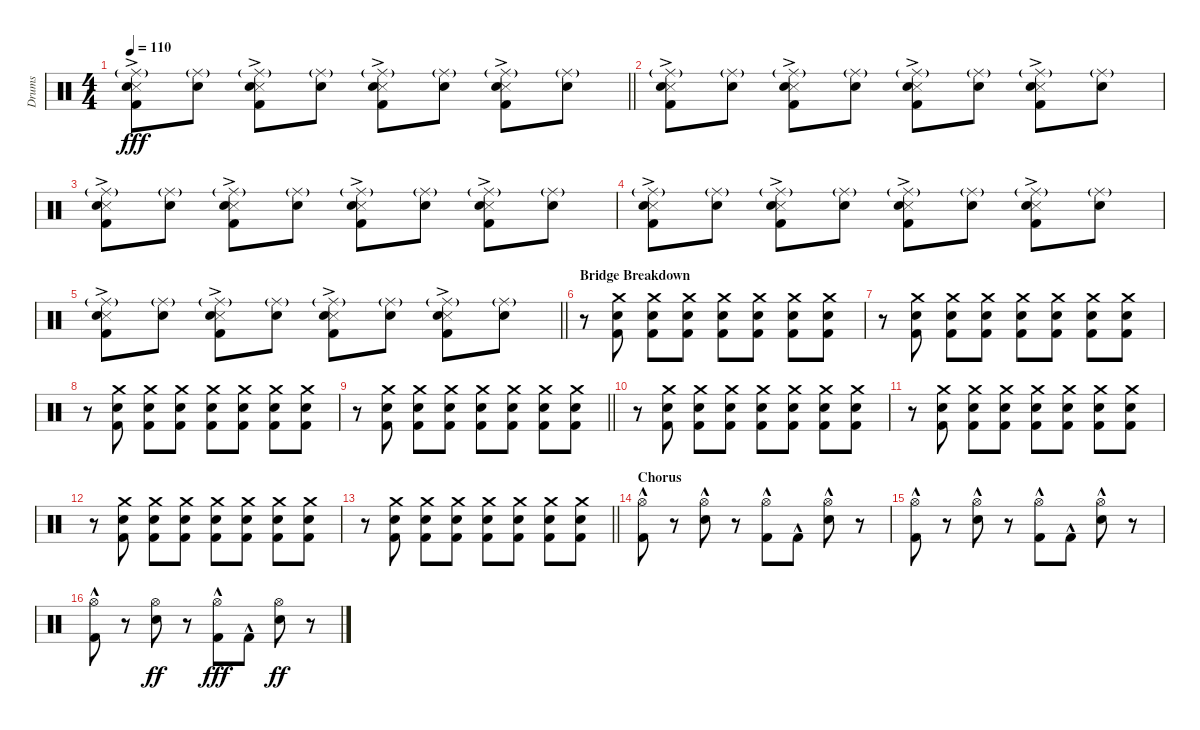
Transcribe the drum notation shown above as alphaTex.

\track ("Drums" "Drums") {instrument percussion}
\staff {score}
\articulation defaults
\ts (4 4)
\tempo 110
\clef neutral
\barLineRight lightlight
\ks c
("Snare (side stick) 3" "Ride (middle)"{g} "Snare (hit) 2" "Kick (hit) 2"{ac}).8{dy fff} ("Ride (middle)"{g} "Snare (hit) 2").8 ("Snare (side stick) 3" "Ride (middle)"{g} "Snare (hit) 2" "Kick (hit) 2"{ac}).8 ("Ride (middle)"{g} "Snare (hit) 2").8 ("Snare (side stick) 3" "Ride (middle)"{g} "Snare (hit) 2" "Kick (hit) 2"{ac}).8 ("Ride (middle)"{g} "Snare (hit) 2").8 ("Snare (side stick) 3" "Ride (middle)"{g} "Snare (hit) 2" "Kick (hit) 2"{ac}).8 ("Ride (middle)"{g} "Snare (hit) 2").8 |
("Snare (side stick) 3" "Ride (middle)"{g} "Snare (hit) 2" "Kick (hit) 2"{ac}).8 ("Ride (middle)"{g} "Snare (hit) 2").8 ("Snare (side stick) 3" "Ride (middle)"{g} "Snare (hit) 2" "Kick (hit) 2"{ac}).8 ("Ride (middle)"{g} "Snare (hit) 2").8 ("Snare (side stick) 3" "Ride (middle)"{g} "Snare (hit) 2" "Kick (hit) 2"{ac}).8 ("Ride (middle)"{g} "Snare (hit) 2").8 ("Snare (side stick) 3" "Ride (middle)"{g} "Snare (hit) 2" "Kick (hit) 2"{ac}).8 ("Ride (middle)"{g} "Snare (hit) 2").8 |
("Snare (side stick) 3" "Ride (middle)"{g} "Snare (hit) 2" "Kick (hit) 2"{ac}).8 ("Ride (middle)"{g} "Snare (hit) 2").8 ("Snare (side stick) 3" "Ride (middle)"{g} "Snare (hit) 2" "Kick (hit) 2"{ac}).8 ("Ride (middle)"{g} "Snare (hit) 2").8 ("Snare (side stick) 3" "Ride (middle)"{g} "Snare (hit) 2" "Kick (hit) 2"{ac}).8 ("Ride (middle)"{g} "Snare (hit) 2").8 ("Snare (side stick) 3" "Ride (middle)"{g} "Snare (hit) 2" "Kick (hit) 2"{ac}).8 ("Ride (middle)"{g} "Snare (hit) 2").8 |
("Snare (side stick) 3" "Ride (middle)"{g} "Snare (hit) 2" "Kick (hit) 2"{ac}).8 ("Ride (middle)"{g} "Snare (hit) 2").8 ("Snare (side stick) 3" "Ride (middle)"{g} "Snare (hit) 2" "Kick (hit) 2"{ac}).8 ("Ride (middle)"{g} "Snare (hit) 2").8 ("Snare (side stick) 3" "Ride (middle)"{g} "Snare (hit) 2" "Kick (hit) 2"{ac}).8 ("Ride (middle)"{g} "Snare (hit) 2").8 ("Snare (side stick) 3" "Ride (middle)"{g} "Snare (hit) 2" "Kick (hit) 2"{ac}).8 ("Ride (middle)"{g} "Snare (hit) 2").8 |
\barLineRight lightlight
("Snare (side stick) 3" "Ride (middle)"{g} "Snare (hit) 2" "Kick (hit) 2"{ac}).8 ("Ride (middle)"{g} "Snare (hit) 2").8 ("Snare (side stick) 3" "Ride (middle)"{g} "Snare (hit) 2" "Kick (hit) 2"{ac}).8 ("Ride (middle)"{g} "Snare (hit) 2").8 ("Snare (side stick) 3" "Ride (middle)"{g} "Snare (hit) 2" "Kick (hit) 2"{ac}).8 ("Ride (middle)"{g} "Snare (hit) 2").8 ("Snare (side stick) 3" "Ride (middle)"{g} "Snare (hit) 2" "Kick (hit) 2"{ac}).8 ("Ride (middle)"{g} "Snare (hit) 2").8 |
\section ("" "Bridge Breakdown")
r.8 ("Snare (hit) 2" "Crash medium (hit)" "Kick (hit) 2").8 ("Snare (hit) 2" "Crash medium (hit)" "Kick (hit) 2").8 ("Snare (hit) 2" "Crash medium (hit)" "Kick (hit) 2").8 ("Snare (hit) 2" "Crash medium (hit)" "Kick (hit) 2").8 ("Snare (hit) 2" "Crash medium (hit)" "Kick (hit) 2").8 ("Snare (hit) 2" "Crash medium (hit)" "Kick (hit) 2").8 ("Snare (hit) 2" "Crash medium (hit)" "Kick (hit) 2").8 |
r.8 ("Snare (hit) 2" "Crash medium (hit)" "Kick (hit) 2").8 ("Snare (hit) 2" "Crash medium (hit)" "Kick (hit) 2").8 ("Snare (hit) 2" "Crash medium (hit)" "Kick (hit) 2").8 ("Snare (hit) 2" "Crash medium (hit)" "Kick (hit) 2").8 ("Snare (hit) 2" "Crash medium (hit)" "Kick (hit) 2").8 ("Snare (hit) 2" "Crash medium (hit)" "Kick (hit) 2").8 ("Snare (hit) 2" "Crash medium (hit)" "Kick (hit) 2").8 |
r.8 ("Snare (hit) 2" "Crash medium (hit)" "Kick (hit) 2").8 ("Snare (hit) 2" "Crash medium (hit)" "Kick (hit) 2").8 ("Snare (hit) 2" "Crash medium (hit)" "Kick (hit) 2").8 ("Snare (hit) 2" "Crash medium (hit)" "Kick (hit) 2").8 ("Snare (hit) 2" "Crash medium (hit)" "Kick (hit) 2").8 ("Snare (hit) 2" "Crash medium (hit)" "Kick (hit) 2").8 ("Snare (hit) 2" "Crash medium (hit)" "Kick (hit) 2").8 |
\barLineRight lightlight
r.8 ("Snare (hit) 2" "Crash medium (hit)" "Kick (hit) 2").8 ("Snare (hit) 2" "Crash medium (hit)" "Kick (hit) 2").8 ("Snare (hit) 2" "Crash medium (hit)" "Kick (hit) 2").8 ("Snare (hit) 2" "Crash medium (hit)" "Kick (hit) 2").8 ("Snare (hit) 2" "Crash medium (hit)" "Kick (hit) 2").8 ("Snare (hit) 2" "Crash medium (hit)" "Kick (hit) 2").8 ("Snare (hit) 2" "Crash medium (hit)" "Kick (hit) 2").8 |
r.8 ("Snare (hit) 2" "Crash medium (hit)" "Kick (hit) 2").8 ("Snare (hit) 2" "Crash medium (hit)" "Kick (hit) 2").8 ("Snare (hit) 2" "Crash medium (hit)" "Kick (hit) 2").8 ("Snare (hit) 2" "Crash medium (hit)" "Kick (hit) 2").8 ("Snare (hit) 2" "Crash medium (hit)" "Kick (hit) 2").8 ("Snare (hit) 2" "Crash medium (hit)" "Kick (hit) 2").8 ("Snare (hit) 2" "Crash medium (hit)" "Kick (hit) 2").8 |
r.8 ("Snare (hit) 2" "Crash medium (hit)" "Kick (hit) 2").8 ("Snare (hit) 2" "Crash medium (hit)" "Kick (hit) 2").8 ("Snare (hit) 2" "Crash medium (hit)" "Kick (hit) 2").8 ("Snare (hit) 2" "Crash medium (hit)" "Kick (hit) 2").8 ("Snare (hit) 2" "Crash medium (hit)" "Kick (hit) 2").8 ("Snare (hit) 2" "Crash medium (hit)" "Kick (hit) 2").8 ("Snare (hit) 2" "Crash medium (hit)" "Kick (hit) 2").8 |
r.8 ("Snare (hit) 2" "Crash medium (hit)" "Kick (hit) 2").8 ("Snare (hit) 2" "Crash medium (hit)" "Kick (hit) 2").8 ("Snare (hit) 2" "Crash medium (hit)" "Kick (hit) 2").8 ("Snare (hit) 2" "Crash medium (hit)" "Kick (hit) 2").8 ("Snare (hit) 2" "Crash medium (hit)" "Kick (hit) 2").8 ("Snare (hit) 2" "Crash medium (hit)" "Kick (hit) 2").8 ("Snare (hit) 2" "Crash medium (hit)" "Kick (hit) 2").8 |
\barLineRight lightlight
r.8 ("Snare (hit) 2" "Crash medium (hit)" "Kick (hit) 2").8 ("Snare (hit) 2" "Crash medium (hit)" "Kick (hit) 2").8 ("Snare (hit) 2" "Crash medium (hit)" "Kick (hit) 2").8 ("Snare (hit) 2" "Crash medium (hit)" "Kick (hit) 2").8 ("Snare (hit) 2" "Crash medium (hit)" "Kick (hit) 2").8 ("Snare (hit) 2" "Crash medium (hit)" "Kick (hit) 2").8 ("Snare (hit) 2" "Crash medium (hit)" "Kick (hit) 2").8 |
\section ("" "Chorus")
("Hi-Hat (open)" "Kick (hit) 2"{hac}).8 r.8 ("Hi-Hat (open)" "Snare (hit) 2"{hac}).8 r.8 ("Hi-Hat (open)" "Kick (hit) 2"{hac}).8 "Kick (hit) 2"{hac}.8 ("Hi-Hat (open)" "Snare (hit) 2"{hac}).8 r.8 |
("Hi-Hat (open)" "Kick (hit) 2"{hac}).8 r.8 ("Hi-Hat (open)" "Snare (hit) 2"{hac}).8 r.8 ("Hi-Hat (open)" "Kick (hit) 2"{hac}).8 "Kick (hit) 2"{hac}.8 ("Hi-Hat (open)" "Snare (hit) 2"{hac}).8 r.8 |
("Hi-Hat (open)" "Kick (hit) 2"{hac}).8 r.8 ("Hi-Hat (open)" "Snare (hit) 2").8{dy ff} r.8 ("Hi-Hat (open)" "Kick (hit) 2"{hac}).8{dy fff} "Kick (hit) 2"{hac}.8 ("Hi-Hat (open)" "Snare (hit) 2").8{dy ff} r.8
